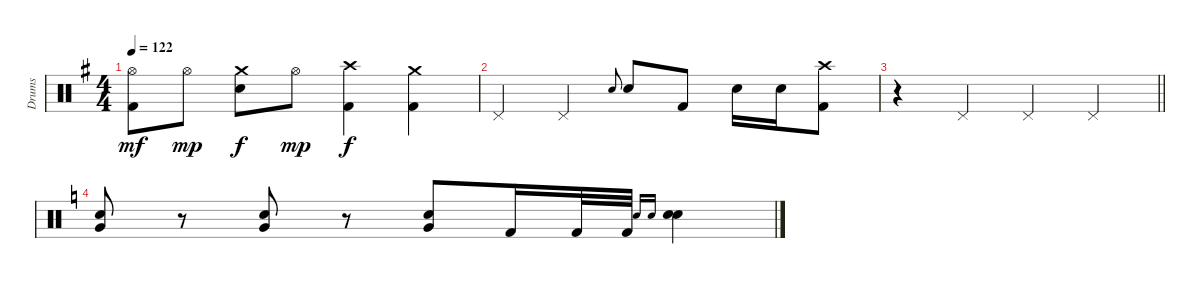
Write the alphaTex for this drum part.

\track ("Drums" "Drums") {instrument percussion}
\staff {score}
\articulation defaults
\ts (4 4)
\tempo 122
\clef neutral
\ks g
("Hi-Hat (open)" "Kick (hit) 2").8{dy mf} "Hi-Hat (open)".8{dy mp} ("Crash medium (hit)" "Electric Snare (hit)").8{dy f} "Hi-Hat (open)".8{dy mp} ("Crash high (hit)" "Kick (hit) 2").4{dy f} ("Crash medium (hit)" "Kick (hit) 2").4 |
"Pedal Hi-Hat (hit)".4 "Pedal Hi-Hat (hit)".4 "Electric Snare (hit)".8{gr onbeat} "Electric Snare (hit)".8 "Kick (hit) 2".8 "Electric Snare (hit)".16 "Electric Snare (hit)".16 ("Crash high (hit)" "Kick (hit) 2").8 |
\barLineRight lightlight
r.4 "Pedal Hi-Hat (hit)".4 "Pedal Hi-Hat (hit)".4 "Pedal Hi-Hat (hit)".4 |
\ks c
("Electric Snare (hit)" "Very Low Tom (hit)").8 r.8 ("Electric Snare (hit)" "Very Low Tom (hit)").8 r.8 ("Electric Snare (hit)" "Very Low Tom (hit)").8 "Kick (hit) 2".16 "Kick (hit) 2".32 "Kick (hit) 2".32 "Electric Snare (hit)".16{gr onbeat} "Electric Snare (hit)".16{gr onbeat} ("Electric Snare (hit)" "Electric Snare (hit)").4
